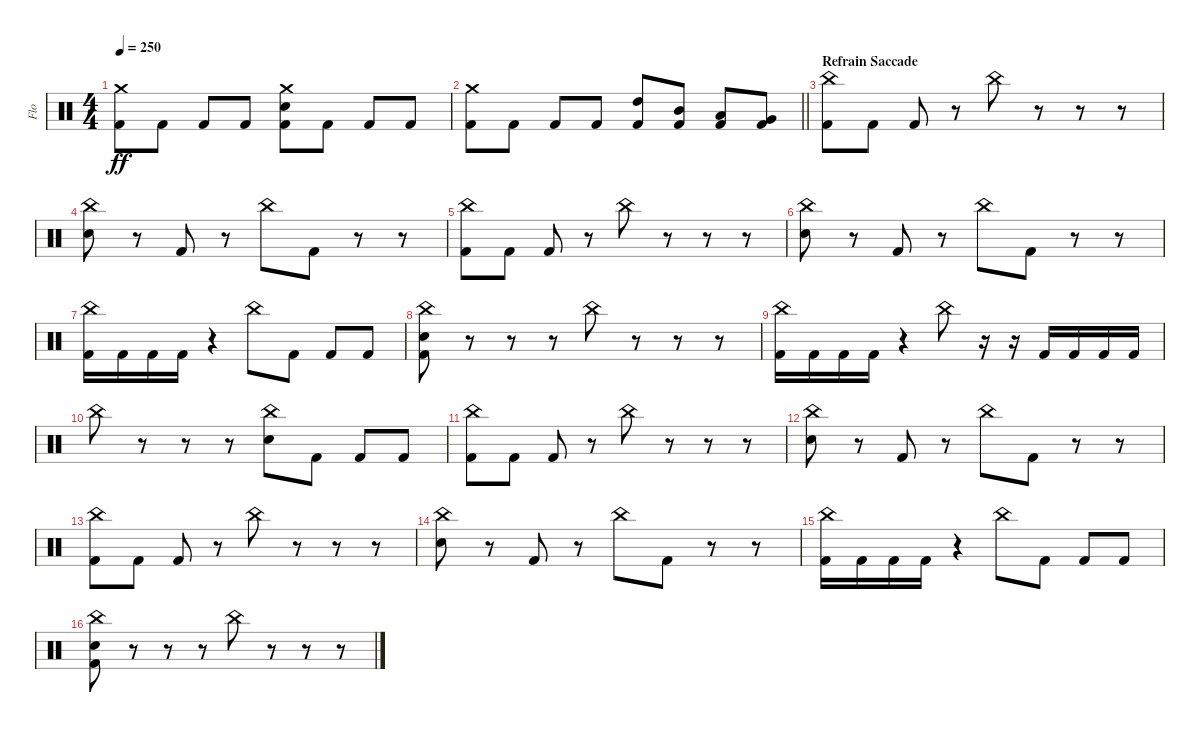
\track ("Flo" "Flo") {instrument percussion}
\staff {score}
\articulation defaults
\ts (4 4)
\tempo 250
\clef neutral
\ks c
("Crash medium (hit)" "Kick (hit) 2").8{dy ff} "Kick (hit) 2".8 "Kick (hit) 2".8 "Kick (hit) 2".8 ("Crash medium (hit)" "Electric Snare (hit)" "Kick (hit) 2").8 "Kick (hit) 2".8 "Kick (hit) 2".8 "Kick (hit) 2".8 |
\barLineRight lightlight
("Crash medium (hit)" "Kick (hit) 2").8 "Kick (hit) 2".8 "Kick (hit) 2".8 "Kick (hit) 2".8 ("High Tom (hit)" "Kick (hit) 2").8 ("Mid Tom (hit)" "Kick (hit) 2").8 ("Low Tom (hit)" "Kick (hit) 2").8 ("Very Low Tom (hit)" "Kick (hit) 2").8 |
\section ("" "Refrain Saccade")
("China (hit)" "Kick (hit) 2").8 "Kick (hit) 2".8 "Kick (hit) 2".8 r.8 "China (hit)".8 r.8 r.8 r.8 |
("China (hit)" "Electric Snare (hit)").8 r.8 "Kick (hit) 2".8 r.8 "China (hit)".8 "Kick (hit) 2".8 r.8 r.8 |
("China (hit)" "Kick (hit) 2").8 "Kick (hit) 2".8 "Kick (hit) 2".8 r.8 "China (hit)".8 r.8 r.8 r.8 |
("China (hit)" "Electric Snare (hit)").8 r.8 "Kick (hit) 2".8 r.8 "China (hit)".8 "Kick (hit) 2".8 r.8 r.8 |
("China (hit)" "Kick (hit) 2").16 "Kick (hit) 2".16 "Kick (hit) 2".16 "Kick (hit) 2".16 r.4 "China (hit)".8 "Kick (hit) 2".8 "Kick (hit) 2".8 "Kick (hit) 2".8 |
("China (hit)" "Electric Snare (hit)" "Kick (hit) 2").8 r.8 r.8 r.8 "China (hit)".8 r.8 r.8 r.8 |
("China (hit)" "Kick (hit) 2").16 "Kick (hit) 2".16 "Kick (hit) 2".16 "Kick (hit) 2".16 r.4 "China (hit)".8 r.16 r.16 "Kick (hit) 2".16 "Kick (hit) 2".16 "Kick (hit) 2".16 "Kick (hit) 2".16 |
"China (hit)".8 r.8 r.8 r.8 ("China (hit)" "Electric Snare (hit)").8 "Kick (hit) 2".8 "Kick (hit) 2".8 "Kick (hit) 2".8 |
("China (hit)" "Kick (hit) 2").8 "Kick (hit) 2".8 "Kick (hit) 2".8 r.8 "China (hit)".8 r.8 r.8 r.8 |
("China (hit)" "Electric Snare (hit)").8 r.8 "Kick (hit) 2".8 r.8 "China (hit)".8 "Kick (hit) 2".8 r.8 r.8 |
("China (hit)" "Kick (hit) 2").8 "Kick (hit) 2".8 "Kick (hit) 2".8 r.8 "China (hit)".8 r.8 r.8 r.8 |
("China (hit)" "Electric Snare (hit)").8 r.8 "Kick (hit) 2".8 r.8 "China (hit)".8 "Kick (hit) 2".8 r.8 r.8 |
("China (hit)" "Kick (hit) 2").16 "Kick (hit) 2".16 "Kick (hit) 2".16 "Kick (hit) 2".16 r.4 "China (hit)".8 "Kick (hit) 2".8 "Kick (hit) 2".8 "Kick (hit) 2".8 |
("China (hit)" "Electric Snare (hit)" "Kick (hit) 2").8 r.8 r.8 r.8 "China (hit)".8 r.8 r.8 r.8
